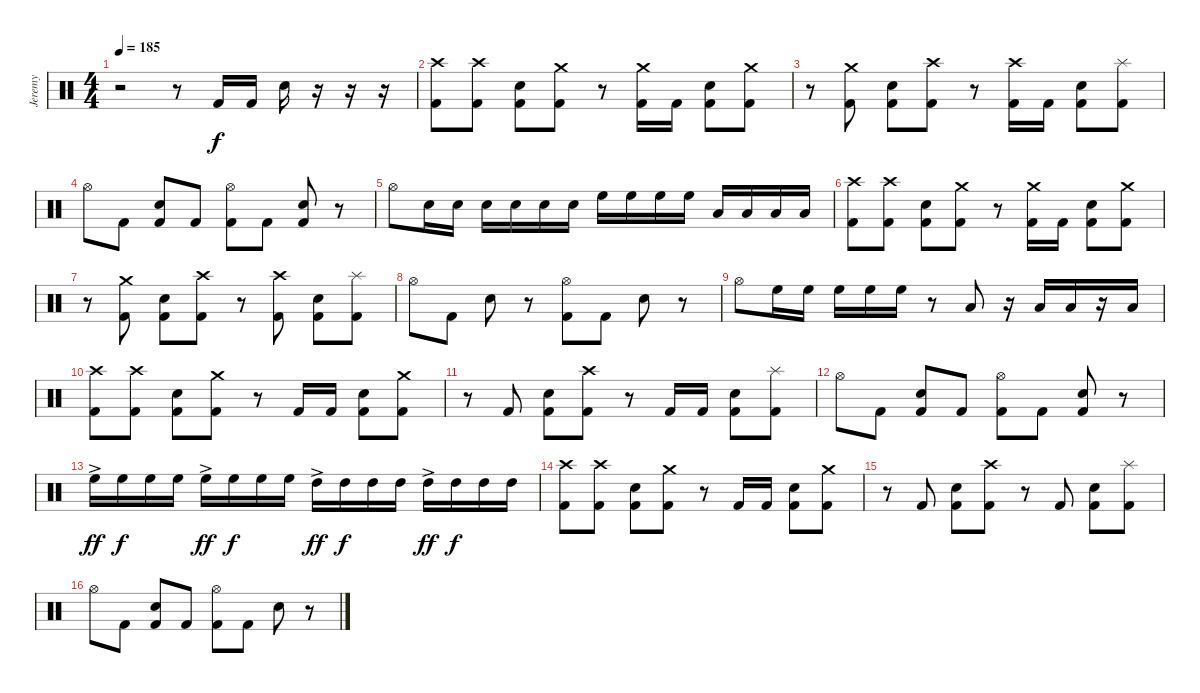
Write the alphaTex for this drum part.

\track ("Jeremy" "Jeremy") {instrument percussion}
\staff {score}
\articulation defaults
\ts (4 4)
\tempo 185
\clef neutral
\ks c
r.2{dy f} r.8 "Kick (hit) 2".16 "Kick (hit) 2".16 "Snare (hit) 2".16 r.16 r.16 r.16 |
("Crash high (hit)" "Kick (hit) 2").8 ("Crash high (hit)" "Kick (hit) 2").8 ("Snare (hit) 2" "Kick (hit) 2").8 ("Crash medium (hit)" "Kick (hit) 2").8 r.8 ("Crash medium (hit)" "Kick (hit) 2").16 "Kick (hit) 2".16 ("Snare (hit) 2" "Kick (hit) 2").8 ("Crash medium (hit)" "Kick (hit) 2").8 |
r.8 ("Crash medium (hit)" "Kick (hit) 2").8 ("Snare (hit) 2" "Kick (hit) 2").8 ("Crash high (hit)" "Kick (hit) 2").8 r.8 ("Crash high (hit)" "Kick (hit) 2").16 "Kick (hit) 2".16 ("Snare (hit) 2" "Kick (hit) 2").8 ("Splash (hit)" "Kick (hit) 2").8 |
"Hi-Hat (open)".8 "Kick (hit) 2".8 ("Snare (hit) 2" "Kick (hit) 2").8 "Kick (hit) 2".8 ("Hi-Hat (open)" "Kick (hit) 2").8 "Kick (hit) 2".8 ("Snare (hit) 2" "Kick (hit) 2").8 r.8 |
"Hi-Hat (open)".8 "Snare (hit) 2".16 "Snare (hit) 2".16 "Snare (hit) 2".16 "Snare (hit) 2".16 "Snare (hit) 2".16 "Snare (hit) 2".16 "High Floor Tom (hit)".16 "High Floor Tom (hit)".16 "High Floor Tom (hit)".16 "High Floor Tom (hit)".16 "Low Tom (hit)".16 "Low Tom (hit)".16 "Low Tom (hit)".16 "Low Tom (hit)".16 |
("Crash high (hit)" "Kick (hit) 2").8 ("Crash high (hit)" "Kick (hit) 2").8 ("Snare (hit) 2" "Kick (hit) 2").8 ("Crash medium (hit)" "Kick (hit) 2").8 r.8 ("Crash medium (hit)" "Kick (hit) 2").16 "Kick (hit) 2".16 ("Snare (hit) 2" "Kick (hit) 2").8 ("Crash medium (hit)" "Kick (hit) 2").8 |
r.8 ("Crash medium (hit)" "Kick (hit) 2").8 ("Snare (hit) 2" "Kick (hit) 2").8 ("Crash high (hit)" "Kick (hit) 2").8 r.8 ("Crash high (hit)" "Kick (hit) 2").8 ("Snare (hit) 2" "Kick (hit) 2").8 ("Splash (hit)" "Kick (hit) 2").8 |
"Hi-Hat (open)".8 "Kick (hit) 2".8 "Snare (hit) 2".8 r.8 ("Hi-Hat (open)" "Kick (hit) 2").8 "Kick (hit) 2".8 "Snare (hit) 2".8 r.8 |
"Hi-Hat (open)".8 "High Floor Tom (hit)".16 "High Floor Tom (hit)".16 "High Floor Tom (hit)".16 "High Floor Tom (hit)".16 "High Floor Tom (hit)".16 r.8 "Low Tom (hit)".8 r.16 "Low Tom (hit)".16 "Low Tom (hit)".16 r.16 "Low Tom (hit)".16 |
("Crash high (hit)" "Kick (hit) 2").8 ("Crash high (hit)" "Kick (hit) 2").8 ("Snare (hit) 2" "Kick (hit) 2").8 ("Crash medium (hit)" "Kick (hit) 2").8 r.8 "Kick (hit) 2".16 "Kick (hit) 2".16 ("Snare (hit) 2" "Kick (hit) 2").8 ("Crash medium (hit)" "Kick (hit) 2").8 |
r.8 "Kick (hit) 2".8 ("Snare (hit) 2" "Kick (hit) 2").8 ("Crash high (hit)" "Kick (hit) 2").8 r.8 "Kick (hit) 2".16 "Kick (hit) 2".16 ("Snare (hit) 2" "Kick (hit) 2").8 ("Splash (hit)" "Kick (hit) 2").8 |
"Hi-Hat (open)".8 "Kick (hit) 2".8 ("Snare (hit) 2" "Kick (hit) 2").8 "Kick (hit) 2".8 ("Hi-Hat (open)" "Kick (hit) 2").8 "Kick (hit) 2".8 ("Snare (hit) 2" "Kick (hit) 2").8 r.8 |
"High Floor Tom (hit)"{ac}.16{dy ff} "High Floor Tom (hit)".16{dy f} "High Floor Tom (hit)".16 "High Floor Tom (hit)".16 "High Floor Tom (hit)"{ac}.16{dy ff} "High Floor Tom (hit)".16{dy f} "High Floor Tom (hit)".16 "High Floor Tom (hit)".16 "High Tom (hit)"{ac}.16{dy ff} "High Tom (hit)".16{dy f} "High Tom (hit)".16 "High Tom (hit)".16 "High Tom (hit)"{ac}.16{dy ff} "High Tom (hit)".16{dy f} "High Tom (hit)".16 "High Tom (hit)".16 |
("Crash high (hit)" "Kick (hit) 2").8 ("Crash high (hit)" "Kick (hit) 2").8 ("Snare (hit) 2" "Kick (hit) 2").8 ("Crash medium (hit)" "Kick (hit) 2").8 r.8 "Kick (hit) 2".16 "Kick (hit) 2".16 ("Snare (hit) 2" "Kick (hit) 2").8 ("Crash medium (hit)" "Kick (hit) 2").8 |
r.8 "Kick (hit) 2".8 ("Snare (hit) 2" "Kick (hit) 2").8 ("Crash high (hit)" "Kick (hit) 2").8 r.8 "Kick (hit) 2".8 ("Snare (hit) 2" "Kick (hit) 2").8 ("Splash (hit)" "Kick (hit) 2").8 |
"Hi-Hat (open)".8 "Kick (hit) 2".8 ("Snare (hit) 2" "Kick (hit) 2").8 "Kick (hit) 2".8 ("Hi-Hat (open)" "Kick (hit) 2").8 "Kick (hit) 2".8 "Snare (hit) 2".8 r.8
